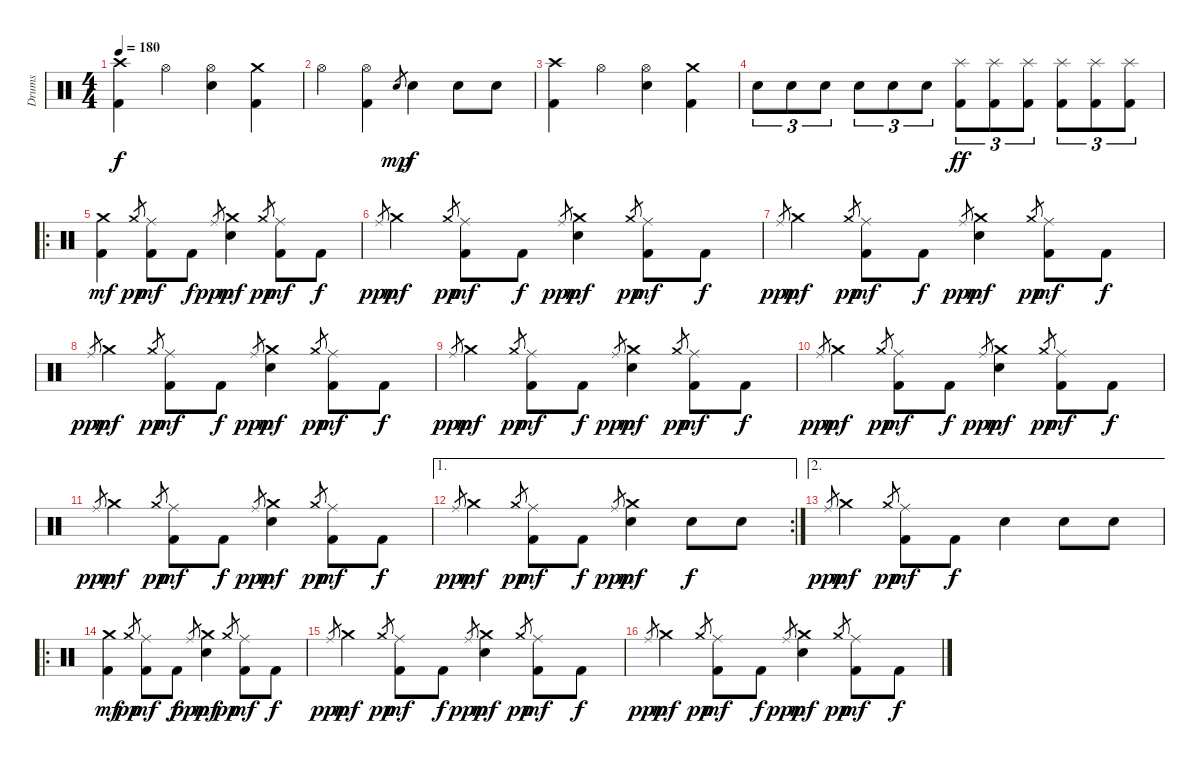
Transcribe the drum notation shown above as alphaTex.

\track ("Drums" "Drums") {instrument percussion}
\staff {score}
\articulation defaults
\ts (4 4)
\tempo 180
\clef neutral
\ks c
("Crash high (hit)" "Kick (hit) 2").4{dy f} "Hi-Hat (open)".4 ("Hi-Hat (open)" "Snare (hit) 2").4 ("Crash medium (hit)" "Kick (hit) 2").4 |
"Hi-Hat (open)".4 ("Hi-Hat (open)" "Kick (hit) 2").4 "Snare (hit) 2".8{gr dy mp} "Snare (hit) 2".4{dy f} "Snare (hit) 2".8 "Snare (hit) 2".8 |
("Crash high (hit)" "Kick (hit) 2").4 "Hi-Hat (open)".4 ("Hi-Hat (open)" "Snare (hit) 2").4 ("Crash medium (hit)" "Kick (hit) 2").4 |
"Snare (hit) 2".8{tu (3 2)} "Snare (hit) 2".8{tu (3 2)} "Snare (hit) 2".8{tu (3 2)} "Snare (hit) 2".8{tu (3 2)} "Snare (hit) 2".8{tu (3 2)} "Snare (hit) 2".8{tu (3 2)} ("Splash (hit)" "Kick (hit) 2").8{tu (3 2) dy ff} ("Splash (hit)" "Kick (hit) 2").8{tu (3 2)} ("Splash (hit)" "Kick (hit) 2").8{tu (3 2)} ("Splash (hit)" "Kick (hit) 2").8{tu (3 2)} ("Splash (hit)" "Kick (hit) 2").8{tu (3 2)} ("Splash (hit)" "Kick (hit) 2").8{tu (3 2)} |
\ro
("Crash medium (hit)" "Kick (hit) 2").4{dy mf} "Crash medium (hit)".8{gr dy pp} ("Ride (middle)" "Kick (hit) 2").8{dy mf} "Kick (hit) 2".8{dy f} "Ride (middle)".8{gr dy ppp} ("Crash medium (hit)" "Snare (hit) 2").4{dy mf} "Crash medium (hit)".8{gr dy pp} ("Ride (middle)" "Kick (hit) 2").8{dy mf} "Kick (hit) 2".8{dy f} |
"Ride (middle)".8{gr dy ppp} "Crash medium (hit)".4{dy mf} "Crash medium (hit)".8{gr dy pp} ("Ride (middle)" "Kick (hit) 2").8{dy mf} "Kick (hit) 2".8{dy f} "Ride (middle)".8{gr dy ppp} ("Crash medium (hit)" "Snare (hit) 2").4{dy mf} "Crash medium (hit)".8{gr dy pp} ("Ride (middle)" "Kick (hit) 2").8{dy mf} "Kick (hit) 2".8{dy f} |
"Ride (middle)".8{gr dy ppp} "Crash medium (hit)".4{dy mf} "Crash medium (hit)".8{gr dy pp} ("Ride (middle)" "Kick (hit) 2").8{dy mf} "Kick (hit) 2".8{dy f} "Ride (middle)".8{gr dy ppp} ("Crash medium (hit)" "Snare (hit) 2").4{dy mf} "Crash medium (hit)".8{gr dy pp} ("Ride (middle)" "Kick (hit) 2").8{dy mf} "Kick (hit) 2".8{dy f} |
"Ride (middle)".8{gr dy ppp} "Crash medium (hit)".4{dy mf} "Crash medium (hit)".8{gr dy pp} ("Ride (middle)" "Kick (hit) 2").8{dy mf} "Kick (hit) 2".8{dy f} "Ride (middle)".8{gr dy ppp} ("Crash medium (hit)" "Snare (hit) 2").4{dy mf} "Crash medium (hit)".8{gr dy pp} ("Ride (middle)" "Kick (hit) 2").8{dy mf} "Kick (hit) 2".8{dy f} |
"Ride (middle)".8{gr dy ppp} "Crash medium (hit)".4{dy mf} "Crash medium (hit)".8{gr dy pp} ("Ride (middle)" "Kick (hit) 2").8{dy mf} "Kick (hit) 2".8{dy f} "Ride (middle)".8{gr dy ppp} ("Crash medium (hit)" "Snare (hit) 2").4{dy mf} "Crash medium (hit)".8{gr dy pp} ("Ride (middle)" "Kick (hit) 2").8{dy mf} "Kick (hit) 2".8{dy f} |
"Ride (middle)".8{gr dy ppp} "Crash medium (hit)".4{dy mf} "Crash medium (hit)".8{gr dy pp} ("Ride (middle)" "Kick (hit) 2").8{dy mf} "Kick (hit) 2".8{dy f} "Ride (middle)".8{gr dy ppp} ("Crash medium (hit)" "Snare (hit) 2").4{dy mf} "Crash medium (hit)".8{gr dy pp} ("Ride (middle)" "Kick (hit) 2").8{dy mf} "Kick (hit) 2".8{dy f} |
"Ride (middle)".8{gr dy ppp} "Crash medium (hit)".4{dy mf} "Crash medium (hit)".8{gr dy pp} ("Ride (middle)" "Kick (hit) 2").8{dy mf} "Kick (hit) 2".8{dy f} "Ride (middle)".8{gr dy ppp} ("Crash medium (hit)" "Snare (hit) 2").4{dy mf} "Crash medium (hit)".8{gr dy pp} ("Ride (middle)" "Kick (hit) 2").8{dy mf} "Kick (hit) 2".8{dy f} |
\ae 1
\rc 2 "Ride (middle)".8{gr dy ppp} "Crash medium (hit)".4{dy mf} "Crash medium (hit)".8{gr dy pp}
("Ride (middle)" "Kick (hit) 2").8{dy mf} "Kick (hit) 2".8{dy f} "Ride (middle)".8{gr dy ppp} ("Crash medium (hit)" "Snare (hit) 2").4{dy mf} "Snare (hit) 2".8{dy f} "Snare (hit) 2".8 |
\ae 2 "Ride (middle)".8{gr dy ppp} "Crash medium (hit)".4{dy mf} "Crash medium (hit)".8{gr dy pp}
("Ride (middle)" "Kick (hit) 2").8{dy mf} "Kick (hit) 2".8{dy f} "Snare (hit) 2".4 "Snare (hit) 2".8 "Snare (hit) 2".8 |
\ro
("Crash medium (hit)" "Kick (hit) 2").4{dy mf} "Crash medium (hit)".8{gr dy pp} ("Ride (middle)" "Kick (hit) 2").8{dy mf} "Kick (hit) 2".8{dy f} "Ride (middle)".8{gr dy ppp} ("Crash medium (hit)" "Snare (hit) 2").4{dy mf} "Crash medium (hit)".8{gr dy pp} ("Ride (middle)" "Kick (hit) 2").8{dy mf} "Kick (hit) 2".8{dy f} |
"Ride (middle)".8{gr dy ppp} "Crash medium (hit)".4{dy mf} "Crash medium (hit)".8{gr dy pp} ("Ride (middle)" "Kick (hit) 2").8{dy mf} "Kick (hit) 2".8{dy f} "Ride (middle)".8{gr dy ppp} ("Crash medium (hit)" "Snare (hit) 2").4{dy mf} "Crash medium (hit)".8{gr dy pp} ("Ride (middle)" "Kick (hit) 2").8{dy mf} "Kick (hit) 2".8{dy f} |
"Ride (middle)".8{gr dy ppp} "Crash medium (hit)".4{dy mf} "Crash medium (hit)".8{gr dy pp} ("Ride (middle)" "Kick (hit) 2").8{dy mf} "Kick (hit) 2".8{dy f} "Ride (middle)".8{gr dy ppp} ("Crash medium (hit)" "Snare (hit) 2").4{dy mf} "Crash medium (hit)".8{gr dy pp} ("Ride (middle)" "Kick (hit) 2").8{dy mf} "Kick (hit) 2".8{dy f}
